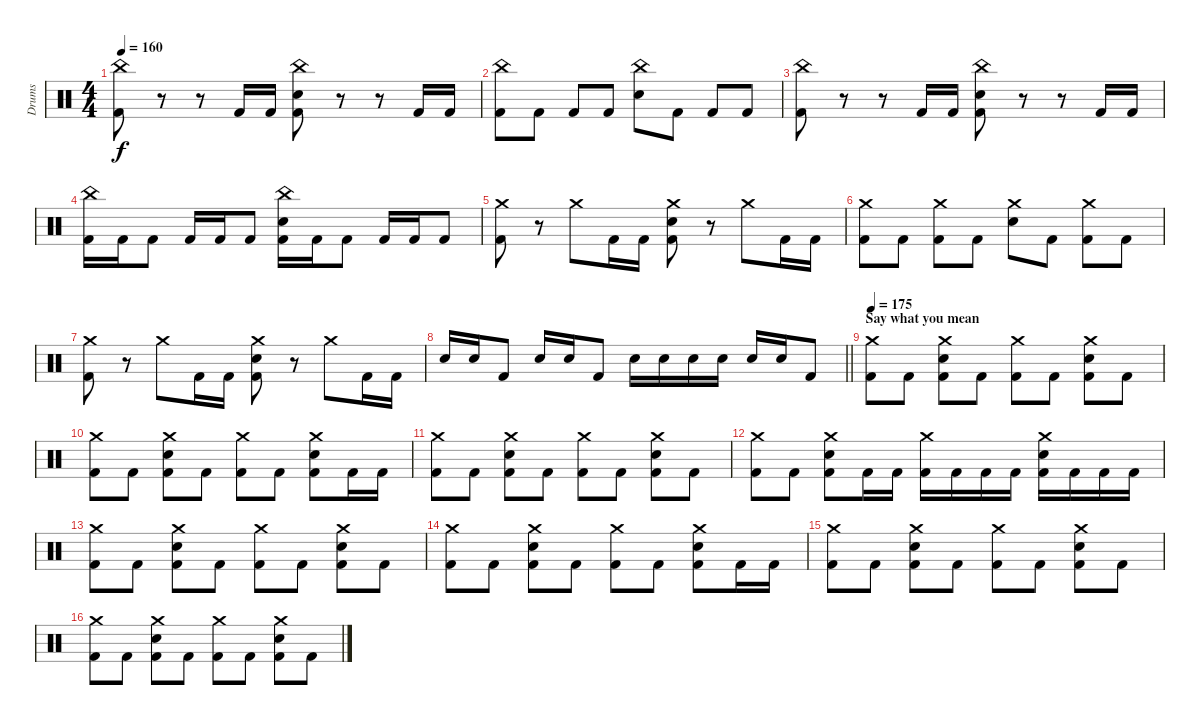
\track ("Drums" "Drums") {instrument percussion}
\staff {score}
\articulation defaults
\ts (4 4)
\tempo 160
\clef neutral
\ks c
("China (hit)" "Kick (hit) 2").8{dy f} r.8 r.8 "Kick (hit) 2".16 "Kick (hit) 2".16 ("China (hit)" "Electric Snare (hit)" "Kick (hit) 2").8 r.8 r.8 "Kick (hit) 2".16 "Kick (hit) 2".16 |
("China (hit)" "Kick (hit) 2").8 "Kick (hit) 2".8 "Kick (hit) 2".8 "Kick (hit) 2".8 ("China (hit)" "Electric Snare (hit)").8 "Kick (hit) 2".8 "Kick (hit) 2".8 "Kick (hit) 2".8 |
("China (hit)" "Kick (hit) 2").8 r.8 r.8 "Kick (hit) 2".16 "Kick (hit) 2".16 ("China (hit)" "Electric Snare (hit)" "Kick (hit) 2").8 r.8 r.8 "Kick (hit) 2".16 "Kick (hit) 2".16 |
("China (hit)" "Kick (hit) 2").16 "Kick (hit) 2".16 "Kick (hit) 2".8 "Kick (hit) 2".16 "Kick (hit) 2".16 "Kick (hit) 2".8 ("China (hit)" "Electric Snare (hit)" "Kick (hit) 2").16 "Kick (hit) 2".16 "Kick (hit) 2".8 "Kick (hit) 2".16 "Kick (hit) 2".16 "Kick (hit) 2".8 |
("Crash medium (hit)" "Kick (hit) 2").8 r.8 "Crash medium (hit)".8 "Kick (hit) 2".16 "Kick (hit) 2".16 ("Crash medium (hit)" "Electric Snare (hit)" "Kick (hit) 2").8 r.8 "Crash medium (hit)".8 "Kick (hit) 2".16 "Kick (hit) 2".16 |
("Crash medium (hit)" "Kick (hit) 2").8 "Kick (hit) 2".8 ("Crash medium (hit)" "Kick (hit) 2").8 "Kick (hit) 2".8 ("Crash medium (hit)" "Electric Snare (hit)").8 "Kick (hit) 2".8 ("Crash medium (hit)" "Kick (hit) 2").8 "Kick (hit) 2".8 |
("Crash medium (hit)" "Kick (hit) 2").8 r.8 "Crash medium (hit)".8 "Kick (hit) 2".16 "Kick (hit) 2".16 ("Crash medium (hit)" "Electric Snare (hit)" "Kick (hit) 2").8 r.8 "Crash medium (hit)".8 "Kick (hit) 2".16 "Kick (hit) 2".16 |
\barLineRight lightlight "Electric Snare (hit)".16 "Electric Snare (hit)".16 "Kick (hit) 2".8 "Electric Snare (hit)".16 "Electric Snare (hit)".16 "Kick (hit) 2".8 "Electric Snare (hit)".16 "Electric Snare (hit)".16 "Electric Snare (hit)".16 "Electric Snare (hit)".16 "Electric Snare (hit)".16 "Electric Snare (hit)".16 "Kick (hit) 2".8
|
\section ("" "Say what you mean")
\tempo 175
("Crash medium (hit)" "Kick (hit) 2").8 "Kick (hit) 2".8 ("Crash medium (hit)" "Electric Snare (hit)" "Kick (hit) 2").8 "Kick (hit) 2".8 ("Crash medium (hit)" "Kick (hit) 2").8 "Kick (hit) 2".8 ("Crash medium (hit)" "Electric Snare (hit)" "Kick (hit) 2").8 "Kick (hit) 2".8 |
("Crash medium (hit)" "Kick (hit) 2").8 "Kick (hit) 2".8 ("Crash medium (hit)" "Electric Snare (hit)" "Kick (hit) 2").8 "Kick (hit) 2".8 ("Crash medium (hit)" "Kick (hit) 2").8 "Kick (hit) 2".8 ("Crash medium (hit)" "Electric Snare (hit)" "Kick (hit) 2").8 "Kick (hit) 2".16 "Kick (hit) 2".16 |
("Crash medium (hit)" "Kick (hit) 2").8 "Kick (hit) 2".8 ("Crash medium (hit)" "Electric Snare (hit)" "Kick (hit) 2").8 "Kick (hit) 2".8 ("Crash medium (hit)" "Kick (hit) 2").8 "Kick (hit) 2".8 ("Crash medium (hit)" "Electric Snare (hit)" "Kick (hit) 2").8 "Kick (hit) 2".8 |
("Crash medium (hit)" "Kick (hit) 2").8 "Kick (hit) 2".8 ("Crash medium (hit)" "Electric Snare (hit)" "Kick (hit) 2").8 "Kick (hit) 2".16 "Kick (hit) 2".16 ("Crash medium (hit)" "Kick (hit) 2").16 "Kick (hit) 2".16 "Kick (hit) 2".16 "Kick (hit) 2".16 ("Crash medium (hit)" "Electric Snare (hit)" "Kick (hit) 2").16 "Kick (hit) 2".16 "Kick (hit) 2".16 "Kick (hit) 2".16 |
("Crash medium (hit)" "Kick (hit) 2").8 "Kick (hit) 2".8 ("Crash medium (hit)" "Electric Snare (hit)" "Kick (hit) 2").8 "Kick (hit) 2".8 ("Crash medium (hit)" "Kick (hit) 2").8 "Kick (hit) 2".8 ("Crash medium (hit)" "Electric Snare (hit)" "Kick (hit) 2").8 "Kick (hit) 2".8 |
("Crash medium (hit)" "Kick (hit) 2").8 "Kick (hit) 2".8 ("Crash medium (hit)" "Electric Snare (hit)" "Kick (hit) 2").8 "Kick (hit) 2".8 ("Crash medium (hit)" "Kick (hit) 2").8 "Kick (hit) 2".8 ("Crash medium (hit)" "Electric Snare (hit)" "Kick (hit) 2").8 "Kick (hit) 2".16 "Kick (hit) 2".16 |
("Crash medium (hit)" "Kick (hit) 2").8 "Kick (hit) 2".8 ("Crash medium (hit)" "Electric Snare (hit)" "Kick (hit) 2").8 "Kick (hit) 2".8 ("Crash medium (hit)" "Kick (hit) 2").8 "Kick (hit) 2".8 ("Crash medium (hit)" "Electric Snare (hit)" "Kick (hit) 2").8 "Kick (hit) 2".8 |
("Crash medium (hit)" "Kick (hit) 2").8 "Kick (hit) 2".8 ("Crash medium (hit)" "Electric Snare (hit)" "Kick (hit) 2").8 "Kick (hit) 2".8 ("Crash medium (hit)" "Kick (hit) 2").8 "Kick (hit) 2".8 ("Crash medium (hit)" "Electric Snare (hit)" "Kick (hit) 2").8 "Kick (hit) 2".8
